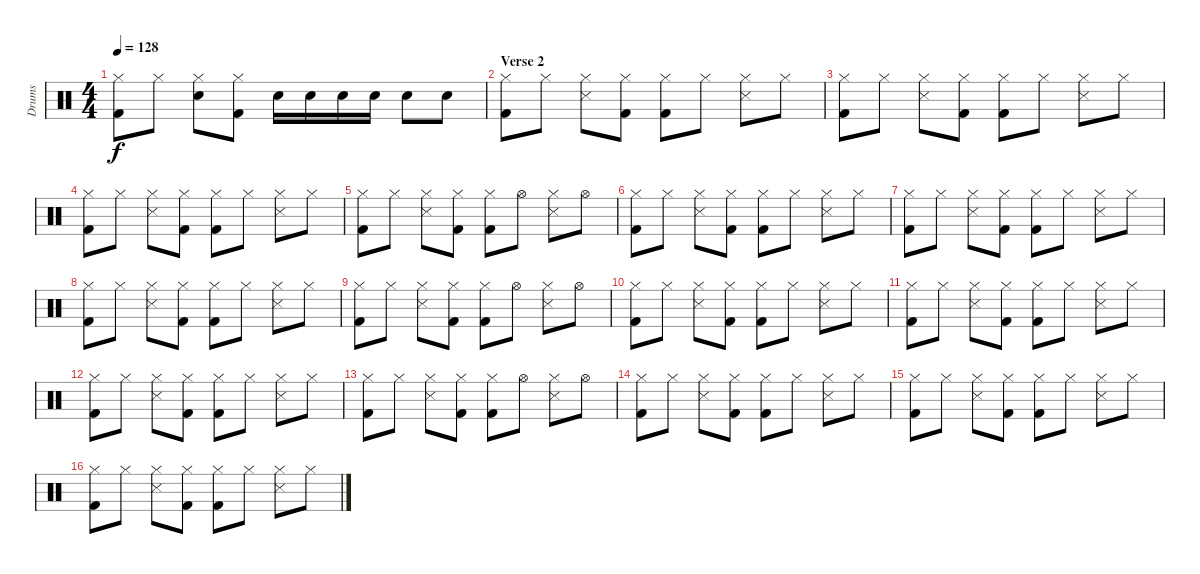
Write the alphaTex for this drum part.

\track ("Drums" "Drums") {instrument percussion}
\staff {score}
\articulation defaults
\ts (4 4)
\tempo 128
\clef neutral
\ks c
("Kick (hit) 2" "Hi-Hat (closed)").8{dy f} "Hi-Hat (closed)".8 ("Electric Snare (hit)" "Hi-Hat (closed)").8 ("Kick (hit) 2" "Hi-Hat (closed)").8 "Electric Snare (hit)".16 "Electric Snare (hit)".16 "Electric Snare (hit)".16 "Electric Snare (hit)".16 "Electric Snare (hit)".8 "Electric Snare (hit)".8 |
\section ("" "Verse 2")
("Hi-Hat (closed)" "Kick (hit) 2").8 "Hi-Hat (closed)".8 ("Hi-Hat (closed)" "Snare (side stick) 3").8 ("Kick (hit) 2" "Hi-Hat (closed)").8 ("Hi-Hat (closed)" "Kick (hit) 2").8 "Hi-Hat (closed)".8 ("Hi-Hat (closed)" "Snare (side stick) 3").8 "Hi-Hat (closed)".8 |
("Hi-Hat (closed)" "Kick (hit) 2").8 "Hi-Hat (closed)".8 ("Hi-Hat (closed)" "Snare (side stick) 3").8 ("Kick (hit) 2" "Hi-Hat (closed)").8 ("Hi-Hat (closed)" "Kick (hit) 2").8 "Hi-Hat (closed)".8 ("Hi-Hat (closed)" "Snare (side stick) 3").8 "Hi-Hat (closed)".8 |
("Hi-Hat (closed)" "Kick (hit) 2").8 "Hi-Hat (closed)".8 ("Hi-Hat (closed)" "Snare (side stick) 3").8 ("Kick (hit) 2" "Hi-Hat (closed)").8 ("Hi-Hat (closed)" "Kick (hit) 2").8 "Hi-Hat (closed)".8 ("Hi-Hat (closed)" "Snare (side stick) 3").8 "Hi-Hat (closed)".8 |
("Hi-Hat (closed)" "Kick (hit) 2").8 "Hi-Hat (closed)".8 ("Hi-Hat (closed)" "Snare (side stick) 3").8 ("Kick (hit) 2" "Hi-Hat (closed)").8 ("Hi-Hat (closed)" "Kick (hit) 2").8 "Hi-Hat (open)".8 ("Hi-Hat (closed)" "Snare (side stick) 3").8 "Hi-Hat (open)".8 |
("Hi-Hat (closed)" "Kick (hit) 2").8 "Hi-Hat (closed)".8 ("Hi-Hat (closed)" "Snare (side stick) 3").8 ("Kick (hit) 2" "Hi-Hat (closed)").8 ("Hi-Hat (closed)" "Kick (hit) 2").8 "Hi-Hat (closed)".8 ("Hi-Hat (closed)" "Snare (side stick) 3").8 "Hi-Hat (closed)".8 |
("Hi-Hat (closed)" "Kick (hit) 2").8 "Hi-Hat (closed)".8 ("Hi-Hat (closed)" "Snare (side stick) 3").8 ("Kick (hit) 2" "Hi-Hat (closed)").8 ("Hi-Hat (closed)" "Kick (hit) 2").8 "Hi-Hat (closed)".8 ("Hi-Hat (closed)" "Snare (side stick) 3").8 "Hi-Hat (closed)".8 |
("Hi-Hat (closed)" "Kick (hit) 2").8 "Hi-Hat (closed)".8 ("Hi-Hat (closed)" "Snare (side stick) 3").8 ("Kick (hit) 2" "Hi-Hat (closed)").8 ("Hi-Hat (closed)" "Kick (hit) 2").8 "Hi-Hat (closed)".8 ("Hi-Hat (closed)" "Snare (side stick) 3").8 "Hi-Hat (closed)".8 |
("Hi-Hat (closed)" "Kick (hit) 2").8 "Hi-Hat (closed)".8 ("Hi-Hat (closed)" "Snare (side stick) 3").8 ("Kick (hit) 2" "Hi-Hat (closed)").8 ("Hi-Hat (closed)" "Kick (hit) 2").8 "Hi-Hat (open)".8 ("Hi-Hat (closed)" "Snare (side stick) 3").8 "Hi-Hat (open)".8 |
("Hi-Hat (closed)" "Kick (hit) 2").8 "Hi-Hat (closed)".8 ("Hi-Hat (closed)" "Snare (side stick) 3").8 ("Kick (hit) 2" "Hi-Hat (closed)").8 ("Hi-Hat (closed)" "Kick (hit) 2").8 "Hi-Hat (closed)".8 ("Hi-Hat (closed)" "Snare (side stick) 3").8 "Hi-Hat (closed)".8 |
("Hi-Hat (closed)" "Kick (hit) 2").8 "Hi-Hat (closed)".8 ("Hi-Hat (closed)" "Snare (side stick) 3").8 ("Kick (hit) 2" "Hi-Hat (closed)").8 ("Hi-Hat (closed)" "Kick (hit) 2").8 "Hi-Hat (closed)".8 ("Hi-Hat (closed)" "Snare (side stick) 3").8 "Hi-Hat (closed)".8 |
("Hi-Hat (closed)" "Kick (hit) 2").8 "Hi-Hat (closed)".8 ("Hi-Hat (closed)" "Snare (side stick) 3").8 ("Kick (hit) 2" "Hi-Hat (closed)").8 ("Hi-Hat (closed)" "Kick (hit) 2").8 "Hi-Hat (closed)".8 ("Hi-Hat (closed)" "Snare (side stick) 3").8 "Hi-Hat (closed)".8 |
("Hi-Hat (closed)" "Kick (hit) 2").8 "Hi-Hat (closed)".8 ("Hi-Hat (closed)" "Snare (side stick) 3").8 ("Kick (hit) 2" "Hi-Hat (closed)").8 ("Hi-Hat (closed)" "Kick (hit) 2").8 "Hi-Hat (open)".8 ("Hi-Hat (closed)" "Snare (side stick) 3").8 "Hi-Hat (open)".8 |
("Hi-Hat (closed)" "Kick (hit) 2").8 "Hi-Hat (closed)".8 ("Hi-Hat (closed)" "Snare (side stick) 3").8 ("Kick (hit) 2" "Hi-Hat (closed)").8 ("Hi-Hat (closed)" "Kick (hit) 2").8 "Hi-Hat (closed)".8 ("Hi-Hat (closed)" "Snare (side stick) 3").8 "Hi-Hat (closed)".8 |
("Hi-Hat (closed)" "Kick (hit) 2").8 "Hi-Hat (closed)".8 ("Hi-Hat (closed)" "Snare (side stick) 3").8 ("Kick (hit) 2" "Hi-Hat (closed)").8 ("Hi-Hat (closed)" "Kick (hit) 2").8 "Hi-Hat (closed)".8 ("Hi-Hat (closed)" "Snare (side stick) 3").8 "Hi-Hat (closed)".8 |
("Hi-Hat (closed)" "Kick (hit) 2").8 "Hi-Hat (closed)".8 ("Hi-Hat (closed)" "Snare (side stick) 3").8 ("Kick (hit) 2" "Hi-Hat (closed)").8 ("Hi-Hat (closed)" "Kick (hit) 2").8 "Hi-Hat (closed)".8 ("Hi-Hat (closed)" "Snare (side stick) 3").8 "Hi-Hat (closed)".8
